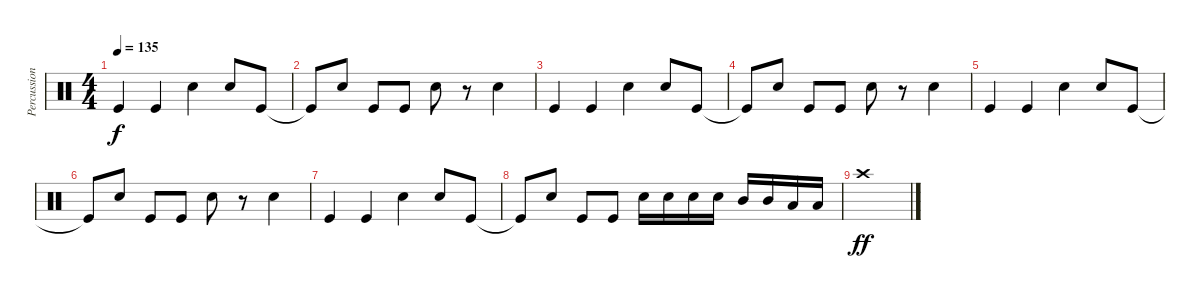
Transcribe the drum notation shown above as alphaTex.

\track ("Percussion" "Percussion") {instrument percussion}
\staff {score}
\articulation defaults
\ts (4 4)
\tempo 135
\clef neutral
\ks c "Kick (hit)".4{dy f} "Kick (hit)".4 "Snare (hit) 2".4 "Snare (hit) 2".8 "Kick (hit)".8
|
"Kick (hit)"{t}.8 "Snare (hit) 2".8 "Kick (hit)".8 "Kick (hit)".8 "Snare (hit) 2".8 r.8 "Snare (hit) 2".4 |
"Kick (hit)".4 "Kick (hit)".4 "Snare (hit) 2".4 "Snare (hit) 2".8 "Kick (hit)".8 |
"Kick (hit)"{t}.8 "Snare (hit) 2".8 "Kick (hit)".8 "Kick (hit)".8 "Snare (hit) 2".8 r.8 "Snare (hit) 2".4 |
"Kick (hit)".4 "Kick (hit)".4 "Snare (hit) 2".4 "Snare (hit) 2".8 "Kick (hit)".8 |
"Kick (hit)"{t}.8 "Snare (hit) 2".8 "Kick (hit)".8 "Kick (hit)".8 "Snare (hit) 2".8 r.8 "Snare (hit) 2".4 |
"Kick (hit)".4 "Kick (hit)".4 "Snare (hit) 2".4 "Snare (hit) 2".8 "Kick (hit)".8 |
"Kick (hit)"{t}.8 "Snare (hit) 2".8 "Kick (hit)".8 "Kick (hit)".8 "Snare (hit) 2".16 "Snare (hit) 2".16 "Snare (hit) 2".16 "Snare (hit) 2".16 "Mid Tom (hit)".16 "Mid Tom (hit)".16 "Low Tom (hit)".16 "Low Tom (hit)".16 |
"Crash high (hit)".1{dy ff}
